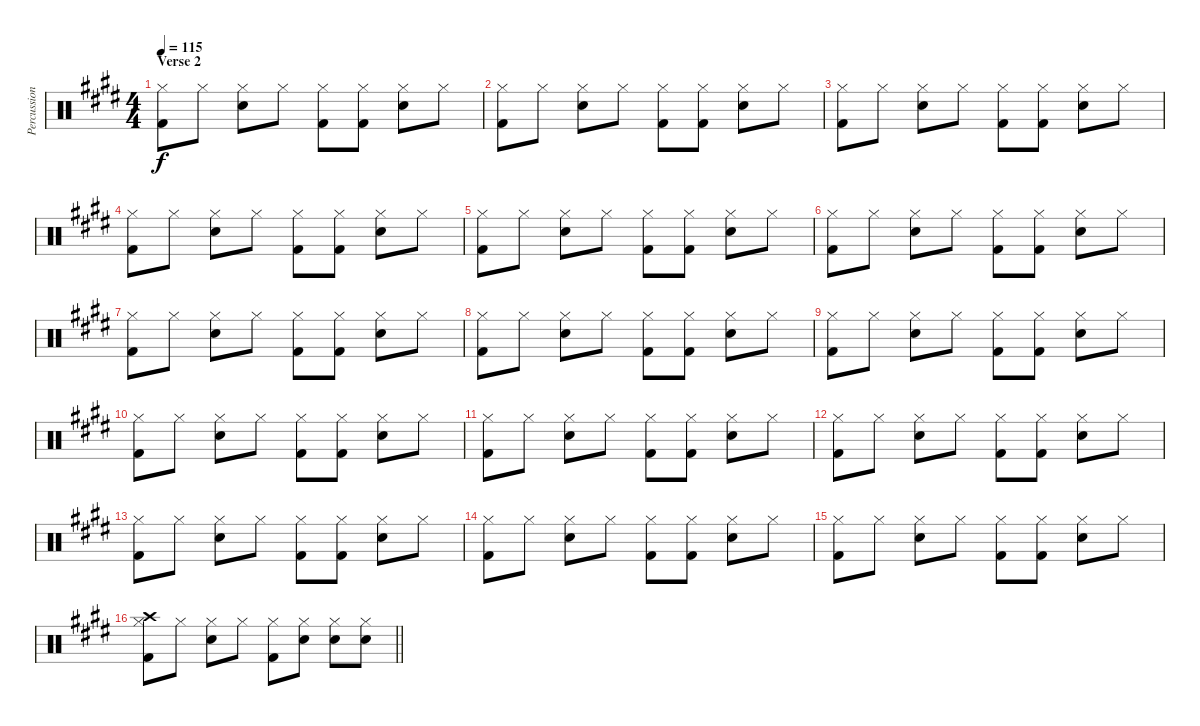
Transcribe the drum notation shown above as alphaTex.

\track ("Percussion" "Percussion") {instrument percussion}
\staff {score}
\articulation defaults
\ts (4 4)
\section ("" "Verse 2")
\tempo 115
\clef neutral
\ks e
("Kick (hit) 2" "Hi-Hat (closed)").8{dy f} "Hi-Hat (closed)".8 ("Electric Snare (hit)" "Hi-Hat (closed)").8 "Hi-Hat (closed)".8 ("Kick (hit) 2" "Hi-Hat (closed)").8 ("Kick (hit) 2" "Hi-Hat (closed)").8 ("Electric Snare (hit)" "Hi-Hat (closed)").8 "Hi-Hat (closed)".8 |
("Kick (hit) 2" "Hi-Hat (closed)").8 "Hi-Hat (closed)".8 ("Electric Snare (hit)" "Hi-Hat (closed)").8 "Hi-Hat (closed)".8 ("Kick (hit) 2" "Hi-Hat (closed)").8 ("Kick (hit) 2" "Hi-Hat (closed)").8 ("Electric Snare (hit)" "Hi-Hat (closed)").8 "Hi-Hat (closed)".8 |
("Kick (hit) 2" "Hi-Hat (closed)").8 "Hi-Hat (closed)".8 ("Electric Snare (hit)" "Hi-Hat (closed)").8 "Hi-Hat (closed)".8 ("Kick (hit) 2" "Hi-Hat (closed)").8 ("Kick (hit) 2" "Hi-Hat (closed)").8 ("Electric Snare (hit)" "Hi-Hat (closed)").8 "Hi-Hat (closed)".8 |
("Kick (hit) 2" "Hi-Hat (closed)").8 "Hi-Hat (closed)".8 ("Electric Snare (hit)" "Hi-Hat (closed)").8 "Hi-Hat (closed)".8 ("Kick (hit) 2" "Hi-Hat (closed)").8 ("Kick (hit) 2" "Hi-Hat (closed)").8 ("Electric Snare (hit)" "Hi-Hat (closed)").8 "Hi-Hat (closed)".8 |
("Kick (hit) 2" "Hi-Hat (closed)").8 "Hi-Hat (closed)".8 ("Electric Snare (hit)" "Hi-Hat (closed)").8 "Hi-Hat (closed)".8 ("Kick (hit) 2" "Hi-Hat (closed)").8 ("Kick (hit) 2" "Hi-Hat (closed)").8 ("Electric Snare (hit)" "Hi-Hat (closed)").8 "Hi-Hat (closed)".8 |
("Kick (hit) 2" "Hi-Hat (closed)").8 "Hi-Hat (closed)".8 ("Electric Snare (hit)" "Hi-Hat (closed)").8 "Hi-Hat (closed)".8 ("Kick (hit) 2" "Hi-Hat (closed)").8 ("Kick (hit) 2" "Hi-Hat (closed)").8 ("Electric Snare (hit)" "Hi-Hat (closed)").8 "Hi-Hat (closed)".8 |
("Kick (hit) 2" "Hi-Hat (closed)").8 "Hi-Hat (closed)".8 ("Electric Snare (hit)" "Hi-Hat (closed)").8 "Hi-Hat (closed)".8 ("Kick (hit) 2" "Hi-Hat (closed)").8 ("Kick (hit) 2" "Hi-Hat (closed)").8 ("Electric Snare (hit)" "Hi-Hat (closed)").8 "Hi-Hat (closed)".8 |
("Kick (hit) 2" "Hi-Hat (closed)").8 "Hi-Hat (closed)".8 ("Electric Snare (hit)" "Hi-Hat (closed)").8 "Hi-Hat (closed)".8 ("Kick (hit) 2" "Hi-Hat (closed)").8 ("Kick (hit) 2" "Hi-Hat (closed)").8 ("Electric Snare (hit)" "Hi-Hat (closed)").8 "Hi-Hat (closed)".8 |
("Kick (hit) 2" "Hi-Hat (closed)").8 "Hi-Hat (closed)".8 ("Electric Snare (hit)" "Hi-Hat (closed)").8 "Hi-Hat (closed)".8 ("Kick (hit) 2" "Hi-Hat (closed)").8 ("Kick (hit) 2" "Hi-Hat (closed)").8 ("Electric Snare (hit)" "Hi-Hat (closed)").8 "Hi-Hat (closed)".8 |
("Kick (hit) 2" "Hi-Hat (closed)").8 "Hi-Hat (closed)".8 ("Electric Snare (hit)" "Hi-Hat (closed)").8 "Hi-Hat (closed)".8 ("Kick (hit) 2" "Hi-Hat (closed)").8 ("Kick (hit) 2" "Hi-Hat (closed)").8 ("Electric Snare (hit)" "Hi-Hat (closed)").8 "Hi-Hat (closed)".8 |
("Kick (hit) 2" "Hi-Hat (closed)").8 "Hi-Hat (closed)".8 ("Electric Snare (hit)" "Hi-Hat (closed)").8 "Hi-Hat (closed)".8 ("Kick (hit) 2" "Hi-Hat (closed)").8 ("Kick (hit) 2" "Hi-Hat (closed)").8 ("Electric Snare (hit)" "Hi-Hat (closed)").8 "Hi-Hat (closed)".8 |
("Kick (hit) 2" "Hi-Hat (closed)").8 "Hi-Hat (closed)".8 ("Electric Snare (hit)" "Hi-Hat (closed)").8 "Hi-Hat (closed)".8 ("Kick (hit) 2" "Hi-Hat (closed)").8 ("Kick (hit) 2" "Hi-Hat (closed)").8 ("Electric Snare (hit)" "Hi-Hat (closed)").8 "Hi-Hat (closed)".8 |
("Kick (hit) 2" "Hi-Hat (closed)").8 "Hi-Hat (closed)".8 ("Electric Snare (hit)" "Hi-Hat (closed)").8 "Hi-Hat (closed)".8 ("Kick (hit) 2" "Hi-Hat (closed)").8 ("Kick (hit) 2" "Hi-Hat (closed)").8 ("Electric Snare (hit)" "Hi-Hat (closed)").8 "Hi-Hat (closed)".8 |
("Kick (hit) 2" "Hi-Hat (closed)").8 "Hi-Hat (closed)".8 ("Electric Snare (hit)" "Hi-Hat (closed)").8 "Hi-Hat (closed)".8 ("Kick (hit) 2" "Hi-Hat (closed)").8 ("Kick (hit) 2" "Hi-Hat (closed)").8 ("Electric Snare (hit)" "Hi-Hat (closed)").8 "Hi-Hat (closed)".8 |
("Kick (hit) 2" "Hi-Hat (closed)").8 "Hi-Hat (closed)".8 ("Electric Snare (hit)" "Hi-Hat (closed)").8 "Hi-Hat (closed)".8 ("Kick (hit) 2" "Hi-Hat (closed)").8 ("Kick (hit) 2" "Hi-Hat (closed)").8 ("Electric Snare (hit)" "Hi-Hat (closed)").8 "Hi-Hat (closed)".8 |
\barLineRight lightlight
("Kick (hit) 2" "Hi-Hat (closed)" "Crash high (hit)").8 "Hi-Hat (closed)".8 ("Electric Snare (hit)" "Hi-Hat (closed)").8 "Hi-Hat (closed)".8 ("Kick (hit) 2" "Hi-Hat (closed)").8 ("Electric Snare (hit)" "Hi-Hat (closed)").8 ("Electric Snare (hit)" "Hi-Hat (closed)").8 ("Electric Snare (hit)" "Hi-Hat (closed)").8
